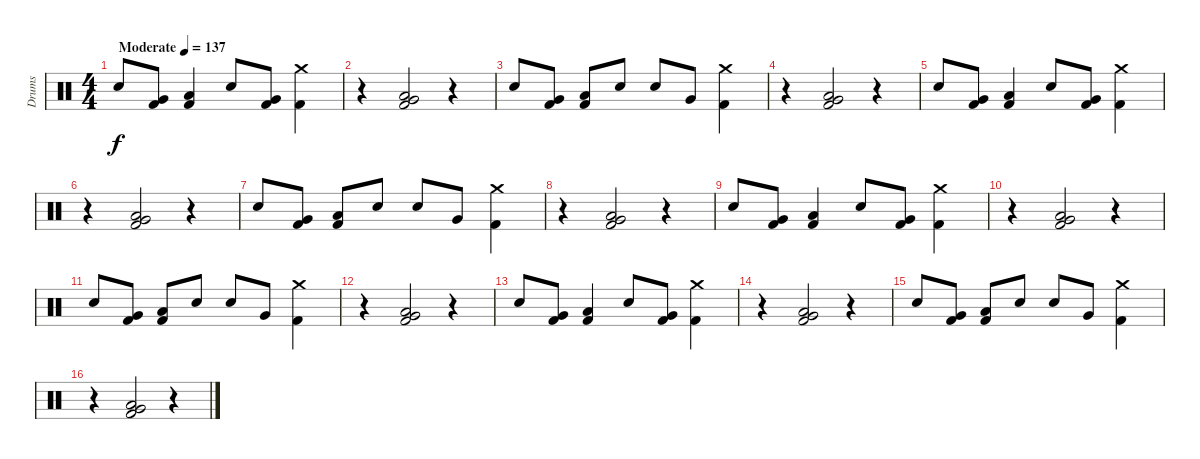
\track ("Drums" "Drums") {instrument percussion}
\staff {score}
\articulation defaults
\ts (4 4)
\tempo (137 "Moderate")
\clef neutral
\ks c "Snare (hit) 2".8{dy f}
("Very Low Tom (hit)" "Kick (hit) 2").8 ("Low Floor Tom (hit)" "Kick (hit) 2").4 "Snare (hit) 2".8 ("Very Low Tom (hit)" "Kick (hit) 2").8 ("Crash medium (hit)" "Kick (hit) 2").4 |
r.4 ("Low Tom (hit)" "Very Low Tom (hit)" "Kick (hit) 2").2 r.4 |
"Snare (hit) 2".8 ("Very Low Tom (hit)" "Kick (hit) 2").8 ("Low Floor Tom (hit)" "Kick (hit) 2").8 "Snare (hit) 2".8 "Snare (hit) 2".8 "Very Low Tom (hit)".8 ("Crash medium (hit)" "Kick (hit) 2").4 |
r.4 ("Low Tom (hit)" "Very Low Tom (hit)" "Kick (hit) 2").2 r.4 |
"Snare (hit) 2".8 ("Very Low Tom (hit)" "Kick (hit) 2").8 ("Low Floor Tom (hit)" "Kick (hit) 2").4 "Snare (hit) 2".8 ("Very Low Tom (hit)" "Kick (hit) 2").8 ("Crash medium (hit)" "Kick (hit) 2").4 |
r.4 ("Low Tom (hit)" "Very Low Tom (hit)" "Kick (hit) 2").2 r.4 |
"Snare (hit) 2".8 ("Very Low Tom (hit)" "Kick (hit) 2").8 ("Low Floor Tom (hit)" "Kick (hit) 2").8 "Snare (hit) 2".8 "Snare (hit) 2".8 "Very Low Tom (hit)".8 ("Crash medium (hit)" "Kick (hit) 2").4 |
r.4 ("Low Tom (hit)" "Very Low Tom (hit)" "Kick (hit) 2").2 r.4 |
"Snare (hit) 2".8 ("Very Low Tom (hit)" "Kick (hit) 2").8 ("Low Floor Tom (hit)" "Kick (hit) 2").4 "Snare (hit) 2".8 ("Very Low Tom (hit)" "Kick (hit) 2").8 ("Crash medium (hit)" "Kick (hit) 2").4 |
r.4 ("Low Tom (hit)" "Very Low Tom (hit)" "Kick (hit) 2").2 r.4 |
"Snare (hit) 2".8 ("Very Low Tom (hit)" "Kick (hit) 2").8 ("Low Floor Tom (hit)" "Kick (hit) 2").8 "Snare (hit) 2".8 "Snare (hit) 2".8 "Very Low Tom (hit)".8 ("Crash medium (hit)" "Kick (hit) 2").4 |
r.4 ("Low Tom (hit)" "Very Low Tom (hit)" "Kick (hit) 2").2 r.4 |
"Snare (hit) 2".8 ("Very Low Tom (hit)" "Kick (hit) 2").8 ("Low Floor Tom (hit)" "Kick (hit) 2").4 "Snare (hit) 2".8 ("Very Low Tom (hit)" "Kick (hit) 2").8 ("Crash medium (hit)" "Kick (hit) 2").4 |
r.4 ("Low Tom (hit)" "Very Low Tom (hit)" "Kick (hit) 2").2 r.4 |
"Snare (hit) 2".8 ("Very Low Tom (hit)" "Kick (hit) 2").8 ("Low Floor Tom (hit)" "Kick (hit) 2").8 "Snare (hit) 2".8 "Snare (hit) 2".8 "Very Low Tom (hit)".8 ("Crash medium (hit)" "Kick (hit) 2").4 |
r.4 ("Low Tom (hit)" "Very Low Tom (hit)" "Kick (hit) 2").2 r.4
